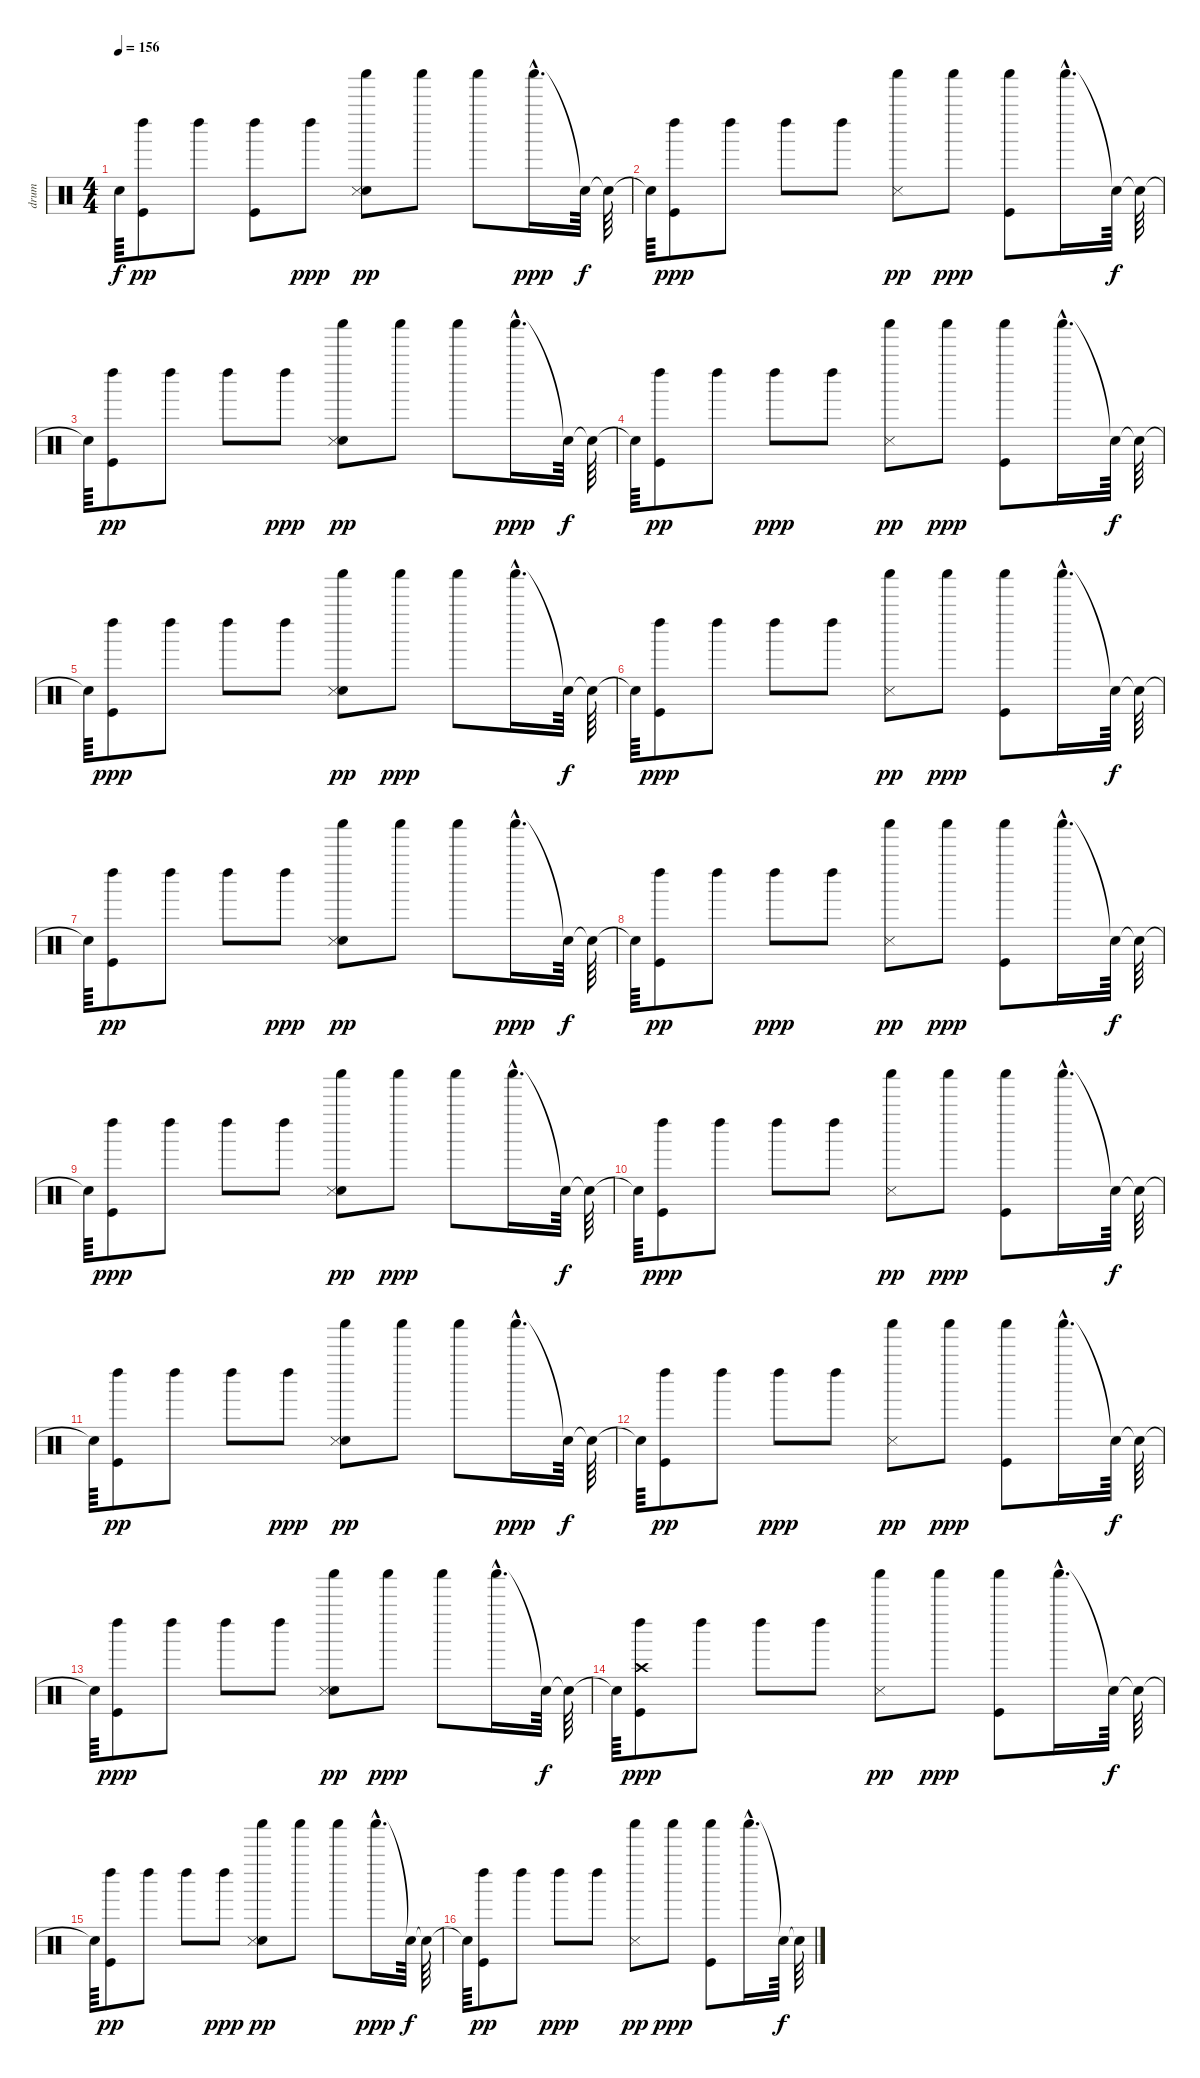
\track ("drum" "drum") {instrument percussion}
\staff {score}
\articulation defaults
\ts (4 4)
\tempo 156
\clef neutral
\ks c "Snare (hit)"{t}.64{dy f}
("Kick (hit)" "Left Maraca (hit)").8{dy pp} "Left Maraca (hit)".8 ("Kick (hit)" "Left Maraca (hit)").8 "Left Maraca (hit)".8{dy ppp} ("Snare (hit) 2" "Snare (side stick) 3" "Shaker (hit)").8{dy pp} "Shaker (hit)".8 "Shaker (hit)".8 "Shaker (hit)"{hac}.16{d dy ppp} "Snare (hit)"{t}.64{dy f} "Snare (hit)"{t}.64 |
"Snare (hit)"{t}.64 ("Left Maraca (hit)" "Kick (hit)").8{dy ppp} "Left Maraca (hit)".8 "Left Maraca (hit)".8 "Left Maraca (hit)".8 ("Snare (side stick) 3" "Shaker (hit)").8{dy pp} "Shaker (hit)".8{dy ppp} ("Kick (hit)" "Shaker (hit)").8 "Shaker (hit)"{hac}.16{d} "Snare (hit)"{t}.64{dy f} "Snare (hit)"{t}.64 |
"Snare (hit)"{t}.64 ("Left Maraca (hit)" "Kick (hit)").8{dy pp} "Left Maraca (hit)".8 "Left Maraca (hit)".8 "Left Maraca (hit)".8{dy ppp} ("Snare (hit) 2" "Snare (side stick) 3" "Shaker (hit)").8{dy pp} "Shaker (hit)".8 "Shaker (hit)".8 "Shaker (hit)"{hac}.16{d dy ppp} "Snare (hit)"{t}.64{dy f} "Snare (hit)"{t}.64 |
"Snare (hit)"{t}.64 ("Kick (hit)" "Left Maraca (hit)").8{dy pp} "Left Maraca (hit)".8 "Left Maraca (hit)".8{dy ppp} "Left Maraca (hit)".8 ("Snare (side stick) 3" "Shaker (hit)").8{dy pp} "Shaker (hit)".8{dy ppp} ("Kick (hit)" "Shaker (hit)").8 "Shaker (hit)"{hac}.16{d} "Snare (hit)"{t}.64{dy f} "Snare (hit)"{t}.64 |
"Snare (hit)"{t}.64 ("Left Maraca (hit)" "Kick (hit)").8{dy ppp} "Left Maraca (hit)".8 "Left Maraca (hit)".8 "Left Maraca (hit)".8 ("Snare (hit) 2" "Shaker (hit)" "Snare (side stick) 3").8{dy pp} "Shaker (hit)".8{dy ppp} "Shaker (hit)".8 "Shaker (hit)"{hac}.16{d} "Snare (hit)"{t}.64{dy f} "Snare (hit)"{t}.64 |
"Snare (hit)"{t}.64 ("Left Maraca (hit)" "Kick (hit)").8{dy ppp} "Left Maraca (hit)".8 "Left Maraca (hit)".8 "Left Maraca (hit)".8 ("Snare (side stick) 3" "Shaker (hit)").8{dy pp} "Shaker (hit)".8{dy ppp} ("Kick (hit)" "Shaker (hit)").8 "Shaker (hit)"{hac}.16{d} "Snare (hit)"{t}.64{dy f} "Snare (hit)"{t}.64 |
"Snare (hit)"{t}.64 ("Left Maraca (hit)" "Kick (hit)").8{dy pp} "Left Maraca (hit)".8 "Left Maraca (hit)".8 "Left Maraca (hit)".8{dy ppp} ("Snare (hit) 2" "Snare (side stick) 3" "Shaker (hit)").8{dy pp} "Shaker (hit)".8 "Shaker (hit)".8 "Shaker (hit)"{hac}.16{d dy ppp} "Snare (hit)"{t}.64{dy f} "Snare (hit)"{t}.64 |
"Snare (hit)"{t}.64 ("Kick (hit)" "Left Maraca (hit)").8{dy pp} "Left Maraca (hit)".8 "Left Maraca (hit)".8{dy ppp} "Left Maraca (hit)".8 ("Snare (side stick) 3" "Shaker (hit)").8{dy pp} "Shaker (hit)".8{dy ppp} ("Kick (hit)" "Shaker (hit)").8 "Shaker (hit)"{hac}.16{d} "Snare (hit)"{t}.64{dy f} "Snare (hit)"{t}.64 |
"Snare (hit)"{t}.64 ("Left Maraca (hit)" "Kick (hit)").8{dy ppp} "Left Maraca (hit)".8 "Left Maraca (hit)".8 "Left Maraca (hit)".8 ("Snare (hit) 2" "Shaker (hit)" "Snare (side stick) 3").8{dy pp} "Shaker (hit)".8{dy ppp} "Shaker (hit)".8 "Shaker (hit)"{hac}.16{d} "Snare (hit)"{t}.64{dy f} "Snare (hit)"{t}.64 |
"Snare (hit)"{t}.64 ("Left Maraca (hit)" "Kick (hit)").8{dy ppp} "Left Maraca (hit)".8 "Left Maraca (hit)".8 "Left Maraca (hit)".8 ("Snare (side stick) 3" "Shaker (hit)").8{dy pp} "Shaker (hit)".8{dy ppp} ("Kick (hit)" "Shaker (hit)").8 "Shaker (hit)"{hac}.16{d} "Snare (hit)"{t}.64{dy f} "Snare (hit)"{t}.64 |
"Snare (hit)"{t}.64 ("Left Maraca (hit)" "Kick (hit)").8{dy pp} "Left Maraca (hit)".8 "Left Maraca (hit)".8 "Left Maraca (hit)".8{dy ppp} ("Snare (hit) 2" "Snare (side stick) 3" "Shaker (hit)").8{dy pp} "Shaker (hit)".8 "Shaker (hit)".8 "Shaker (hit)"{hac}.16{d dy ppp} "Snare (hit)"{t}.64{dy f} "Snare (hit)"{t}.64 |
"Snare (hit)"{t}.64 ("Kick (hit)" "Left Maraca (hit)").8{dy pp} "Left Maraca (hit)".8 "Left Maraca (hit)".8{dy ppp} "Left Maraca (hit)".8 ("Snare (side stick) 3" "Shaker (hit)").8{dy pp} "Shaker (hit)".8{dy ppp} ("Kick (hit)" "Shaker (hit)").8 "Shaker (hit)"{hac}.16{d} "Snare (hit)"{t}.64{dy f} "Snare (hit)"{t}.64 |
"Snare (hit)"{t}.64 ("Left Maraca (hit)" "Kick (hit)").8{dy ppp} "Left Maraca (hit)".8 "Left Maraca (hit)".8 "Left Maraca (hit)".8 ("Snare (hit) 2" "Shaker (hit)" "Snare (side stick) 3").8{dy pp} "Shaker (hit)".8{dy ppp} "Shaker (hit)".8 "Shaker (hit)"{hac}.16{d} "Snare (hit)"{t}.64{dy f} "Snare (hit)"{t}.64 |
"Snare (hit)"{t}.64 ("Crash high (hit)" "Left Maraca (hit)" "Kick (hit)").8{dy ppp} "Left Maraca (hit)".8 "Left Maraca (hit)".8 "Left Maraca (hit)".8 ("Snare (side stick) 3" "Shaker (hit)").8{dy pp} "Shaker (hit)".8{dy ppp} ("Kick (hit)" "Shaker (hit)").8 "Shaker (hit)"{hac}.16{d} "Snare (hit)"{t}.64{dy f} "Snare (hit)"{t}.64 |
"Snare (hit)"{t}.64 ("Left Maraca (hit)" "Kick (hit)").8{dy pp} "Left Maraca (hit)".8 "Left Maraca (hit)".8 "Left Maraca (hit)".8{dy ppp} ("Snare (hit) 2" "Snare (side stick) 3" "Shaker (hit)").8{dy pp} "Shaker (hit)".8 "Shaker (hit)".8 "Shaker (hit)"{hac}.16{d dy ppp} "Snare (hit)"{t}.64{dy f} "Snare (hit)"{t}.64 |
"Snare (hit)"{t}.64 ("Kick (hit)" "Left Maraca (hit)").8{dy pp} "Left Maraca (hit)".8 "Left Maraca (hit)".8{dy ppp} "Left Maraca (hit)".8 ("Snare (side stick) 3" "Shaker (hit)").8{dy pp} "Shaker (hit)".8{dy ppp} ("Kick (hit)" "Shaker (hit)").8 "Shaker (hit)"{hac}.16{d} "Snare (hit)"{t}.64{dy f} "Snare (hit)"{t}.64
